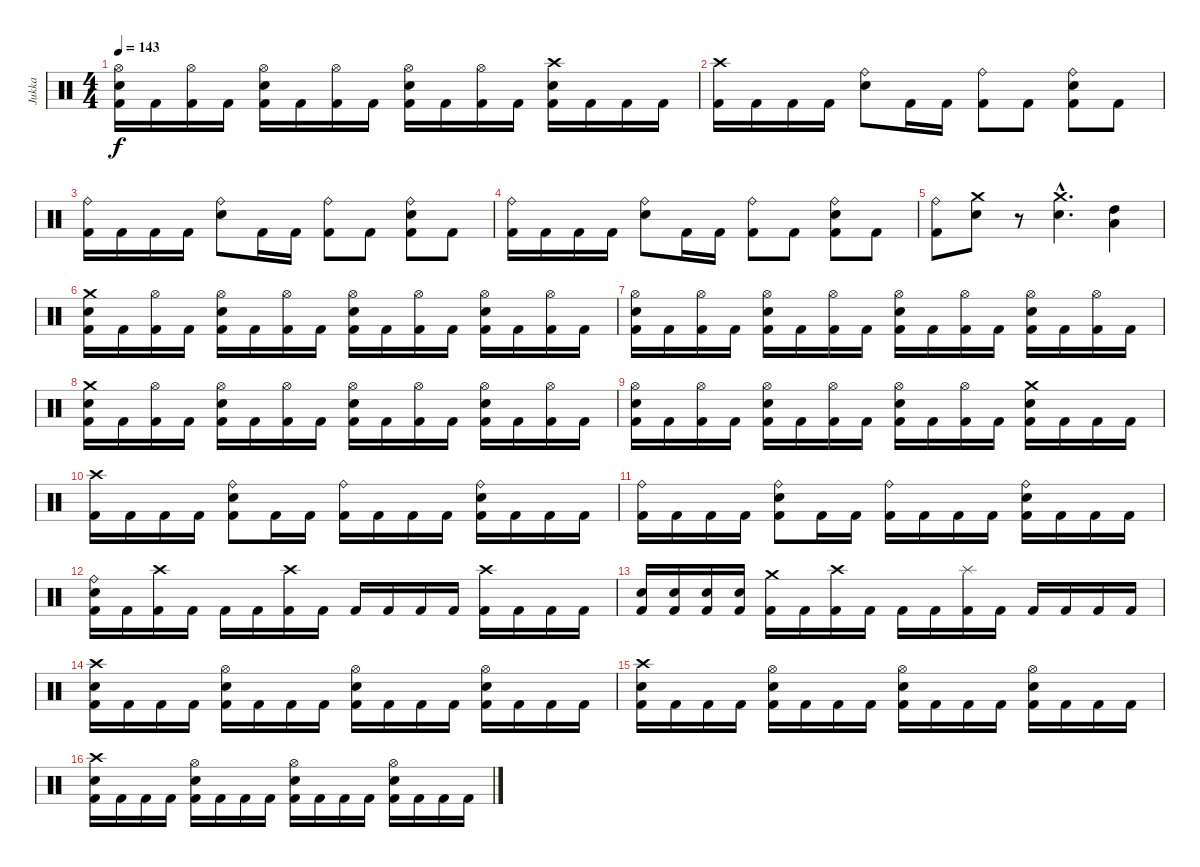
\track ("Jukka" "Jukka") {instrument percussion}
\staff {score}
\articulation defaults
\ts (4 4)
\tempo 143
\clef neutral
\ks c
("Hi-Hat (open)" "Electric Snare (hit)" "Kick (hit) 2").16{dy f} "Kick (hit) 2".16 ("Hi-Hat (open)" "Kick (hit) 2").16 "Kick (hit) 2".16 ("Hi-Hat (open)" "Electric Snare (hit)" "Kick (hit) 2").16 "Kick (hit) 2".16 ("Hi-Hat (open)" "Kick (hit) 2").16 "Kick (hit) 2".16 ("Hi-Hat (open)" "Electric Snare (hit)" "Kick (hit) 2").16 "Kick (hit) 2".16 ("Hi-Hat (open)" "Kick (hit) 2").16 "Kick (hit) 2".16 ("Crash high (hit)" "Electric Snare (hit)" "Kick (hit) 2").16 "Kick (hit) 2".16 "Kick (hit) 2".16 "Kick (hit) 2".16 |
("Crash high (hit)" "Kick (hit) 2").16 "Kick (hit) 2".16 "Kick (hit) 2".16 "Kick (hit) 2".16 ("Ride (bell)" "Electric Snare (hit)").8 "Kick (hit) 2".16 "Kick (hit) 2".16 ("Ride (bell)" "Kick (hit) 2").8 "Kick (hit) 2".8 ("Ride (bell)" "Electric Snare (hit)" "Kick (hit) 2").8 "Kick (hit) 2".8 |
("Ride (bell)" "Kick (hit) 2").16 "Kick (hit) 2".16 "Kick (hit) 2".16 "Kick (hit) 2".16 ("Ride (bell)" "Electric Snare (hit)").8 "Kick (hit) 2".16 "Kick (hit) 2".16 ("Ride (bell)" "Kick (hit) 2").8 "Kick (hit) 2".8 ("Ride (bell)" "Electric Snare (hit)" "Kick (hit) 2").8 "Kick (hit) 2".8 |
("Ride (bell)" "Kick (hit) 2").16 "Kick (hit) 2".16 "Kick (hit) 2".16 "Kick (hit) 2".16 ("Ride (bell)" "Electric Snare (hit)").8 "Kick (hit) 2".16 "Kick (hit) 2".16 ("Ride (bell)" "Kick (hit) 2").8 "Kick (hit) 2".8 ("Ride (bell)" "Electric Snare (hit)" "Kick (hit) 2").8 "Kick (hit) 2".8 |
("Ride (bell)" "Kick (hit) 2").8 ("Crash medium (hit)" "Electric Snare (hit)").8 r.8 ("Crash medium (hit)"{hac} "Electric Snare (hit)"{hac}).4{d} ("High Tom (hit)" "Low Tom (hit)").4 |
("Crash medium (hit)" "Electric Snare (hit)" "Kick (hit) 2").16 "Kick (hit) 2".16 ("Hi-Hat (open)" "Kick (hit) 2").16 "Kick (hit) 2".16 ("Hi-Hat (open)" "Electric Snare (hit)" "Kick (hit) 2").16 "Kick (hit) 2".16 ("Hi-Hat (open)" "Kick (hit) 2").16 "Kick (hit) 2".16 ("Hi-Hat (open)" "Electric Snare (hit)" "Kick (hit) 2").16 "Kick (hit) 2".16 ("Hi-Hat (open)" "Kick (hit) 2").16 "Kick (hit) 2".16 ("Hi-Hat (open)" "Electric Snare (hit)" "Kick (hit) 2").16 "Kick (hit) 2".16 ("Hi-Hat (open)" "Kick (hit) 2").16 "Kick (hit) 2".16 |
("Hi-Hat (open)" "Electric Snare (hit)" "Kick (hit) 2").16 "Kick (hit) 2".16 ("Hi-Hat (open)" "Kick (hit) 2").16 "Kick (hit) 2".16 ("Hi-Hat (open)" "Electric Snare (hit)" "Kick (hit) 2").16 "Kick (hit) 2".16 ("Hi-Hat (open)" "Kick (hit) 2").16 "Kick (hit) 2".16 ("Hi-Hat (open)" "Electric Snare (hit)" "Kick (hit) 2").16 "Kick (hit) 2".16 ("Hi-Hat (open)" "Kick (hit) 2").16 "Kick (hit) 2".16 ("Hi-Hat (open)" "Electric Snare (hit)" "Kick (hit) 2").16 "Kick (hit) 2".16 ("Hi-Hat (open)" "Kick (hit) 2").16 "Kick (hit) 2".16 |
("Crash medium (hit)" "Electric Snare (hit)" "Kick (hit) 2").16 "Kick (hit) 2".16 ("Hi-Hat (open)" "Kick (hit) 2").16 "Kick (hit) 2".16 ("Hi-Hat (open)" "Electric Snare (hit)" "Kick (hit) 2").16 "Kick (hit) 2".16 ("Hi-Hat (open)" "Kick (hit) 2").16 "Kick (hit) 2".16 ("Hi-Hat (open)" "Electric Snare (hit)" "Kick (hit) 2").16 "Kick (hit) 2".16 ("Hi-Hat (open)" "Kick (hit) 2").16 "Kick (hit) 2".16 ("Hi-Hat (open)" "Electric Snare (hit)" "Kick (hit) 2").16 "Kick (hit) 2".16 ("Hi-Hat (open)" "Kick (hit) 2").16 "Kick (hit) 2".16 |
("Hi-Hat (open)" "Electric Snare (hit)" "Kick (hit) 2").16 "Kick (hit) 2".16 ("Hi-Hat (open)" "Kick (hit) 2").16 "Kick (hit) 2".16 ("Hi-Hat (open)" "Electric Snare (hit)" "Kick (hit) 2").16 "Kick (hit) 2".16 ("Hi-Hat (open)" "Kick (hit) 2").16 "Kick (hit) 2".16 ("Hi-Hat (open)" "Electric Snare (hit)" "Kick (hit) 2").16 "Kick (hit) 2".16 ("Hi-Hat (open)" "Kick (hit) 2").16 "Kick (hit) 2".16 ("Crash medium (hit)" "Electric Snare (hit)" "Kick (hit) 2").16 "Kick (hit) 2".16 "Kick (hit) 2".16 "Kick (hit) 2".16 |
("Crash high (hit)" "Kick (hit) 2").16 "Kick (hit) 2".16 "Kick (hit) 2".16 "Kick (hit) 2".16 ("Ride (bell)" "Electric Snare (hit)" "Kick (hit) 2").8 "Kick (hit) 2".16 "Kick (hit) 2".16 ("Ride (bell)" "Kick (hit) 2").16 "Kick (hit) 2".16 "Kick (hit) 2".16 "Kick (hit) 2".16 ("Ride (bell)" "Electric Snare (hit)" "Kick (hit) 2").16 "Kick (hit) 2".16 "Kick (hit) 2".16 "Kick (hit) 2".16 |
("Ride (bell)" "Kick (hit) 2").16 "Kick (hit) 2".16 "Kick (hit) 2".16 "Kick (hit) 2".16 ("Ride (bell)" "Electric Snare (hit)" "Kick (hit) 2").8 "Kick (hit) 2".16 "Kick (hit) 2".16 ("Ride (bell)" "Kick (hit) 2").16 "Kick (hit) 2".16 "Kick (hit) 2".16 "Kick (hit) 2".16 ("Ride (bell)" "Electric Snare (hit)" "Kick (hit) 2").16 "Kick (hit) 2".16 "Kick (hit) 2".16 "Kick (hit) 2".16 |
("Ride (bell)" "Electric Snare (hit)" "Kick (hit) 2").16 "Kick (hit) 2".16 ("Crash high (hit)" "Kick (hit) 2").16 "Kick (hit) 2".16 "Kick (hit) 2".16 "Kick (hit) 2".16 ("Crash high (hit)" "Kick (hit) 2").16 "Kick (hit) 2".16 "Kick (hit) 2".16 "Kick (hit) 2".16 "Kick (hit) 2".16 "Kick (hit) 2".16 ("Crash high (hit)" "Kick (hit) 2").16 "Kick (hit) 2".16 "Kick (hit) 2".16 "Kick (hit) 2".16 |
("Electric Snare (hit)" "Kick (hit) 2").16 ("Electric Snare (hit)" "Kick (hit) 2").16 ("Electric Snare (hit)" "Kick (hit) 2").16 ("Electric Snare (hit)" "Kick (hit) 2").16 ("Crash medium (hit)" "Kick (hit) 2").16 "Kick (hit) 2".16 ("Crash high (hit)" "Kick (hit) 2").16 "Kick (hit) 2".16 "Kick (hit) 2".16 "Kick (hit) 2".16 ("Splash (hit)" "Kick (hit) 2").16 "Kick (hit) 2".16 "Kick (hit) 2".16 "Kick (hit) 2".16 "Kick (hit) 2".16 "Kick (hit) 2".16 |
("Crash high (hit)" "Electric Snare (hit)" "Kick (hit) 2").16 "Kick (hit) 2".16 "Kick (hit) 2".16 "Kick (hit) 2".16 ("Hi-Hat (open)" "Electric Snare (hit)" "Kick (hit) 2").16 "Kick (hit) 2".16 "Kick (hit) 2".16 "Kick (hit) 2".16 ("Hi-Hat (open)" "Electric Snare (hit)" "Kick (hit) 2").16 "Kick (hit) 2".16 "Kick (hit) 2".16 "Kick (hit) 2".16 ("Hi-Hat (open)" "Electric Snare (hit)" "Kick (hit) 2").16 "Kick (hit) 2".16 "Kick (hit) 2".16 "Kick (hit) 2".16 |
("Crash high (hit)" "Electric Snare (hit)" "Kick (hit) 2").16 "Kick (hit) 2".16 "Kick (hit) 2".16 "Kick (hit) 2".16 ("Hi-Hat (open)" "Electric Snare (hit)" "Kick (hit) 2").16 "Kick (hit) 2".16 "Kick (hit) 2".16 "Kick (hit) 2".16 ("Hi-Hat (open)" "Electric Snare (hit)" "Kick (hit) 2").16 "Kick (hit) 2".16 "Kick (hit) 2".16 "Kick (hit) 2".16 ("Hi-Hat (open)" "Electric Snare (hit)" "Kick (hit) 2").16 "Kick (hit) 2".16 "Kick (hit) 2".16 "Kick (hit) 2".16 |
("Crash high (hit)" "Electric Snare (hit)" "Kick (hit) 2").16 "Kick (hit) 2".16 "Kick (hit) 2".16 "Kick (hit) 2".16 ("Hi-Hat (open)" "Electric Snare (hit)" "Kick (hit) 2").16 "Kick (hit) 2".16 "Kick (hit) 2".16 "Kick (hit) 2".16 ("Hi-Hat (open)" "Electric Snare (hit)" "Kick (hit) 2").16 "Kick (hit) 2".16 "Kick (hit) 2".16 "Kick (hit) 2".16 ("Hi-Hat (open)" "Electric Snare (hit)" "Kick (hit) 2").16 "Kick (hit) 2".16 "Kick (hit) 2".16 "Kick (hit) 2".16
